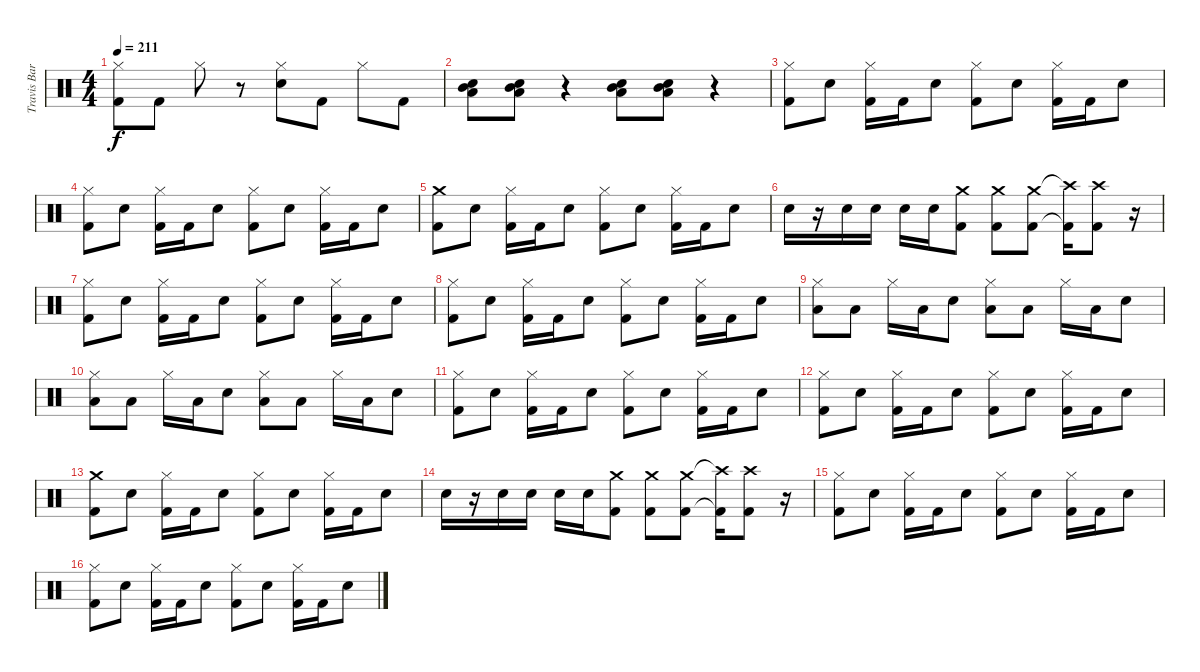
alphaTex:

\track ("Travis Barker (Drums)" "Travis Bar") {instrument percussion}
\staff {score}
\articulation defaults
\ts (4 4)
\tempo 211
\clef neutral
\ks c
("Kick (hit) 2" "Hi-Hat (closed)").8{dy f} "Kick (hit) 2".8 "Hi-Hat (closed)".8 r.8 ("Electric Snare (hit)" "Hi-Hat (closed)").8 "Kick (hit) 2".8 "Hi-Hat (closed)".8 "Kick (hit) 2".8 |
("Electric Snare (hit)" "Mid Tom (hit)" "Low Floor Tom (hit)").8 ("Electric Snare (hit)" "Mid Tom (hit)" "Low Floor Tom (hit)").8 r.4 ("Electric Snare (hit)" "Mid Tom (hit)" "Low Floor Tom (hit)").8 ("Electric Snare (hit)" "Mid Tom (hit)" "Low Floor Tom (hit)").8 r.4 |
("Kick (hit) 2" "Hi-Hat (closed)").8 "Electric Snare (hit)".8 ("Kick (hit) 2" "Hi-Hat (closed)").16 "Kick (hit) 2".16 "Electric Snare (hit)".8 ("Kick (hit) 2" "Hi-Hat (closed)").8 "Electric Snare (hit)".8 ("Kick (hit) 2" "Hi-Hat (closed)").16 "Kick (hit) 2".16 "Electric Snare (hit)".8 |
("Kick (hit) 2" "Hi-Hat (closed)").8 "Electric Snare (hit)".8 ("Kick (hit) 2" "Hi-Hat (closed)").16 "Kick (hit) 2".16 "Electric Snare (hit)".8 ("Kick (hit) 2" "Hi-Hat (closed)").8 "Electric Snare (hit)".8 ("Kick (hit) 2" "Hi-Hat (closed)").16 "Kick (hit) 2".16 "Electric Snare (hit)".8 |
("Kick (hit) 2" "Crash medium (hit)").8 "Electric Snare (hit)".8 ("Kick (hit) 2" "Hi-Hat (closed)").16 "Kick (hit) 2".16 "Electric Snare (hit)".8 ("Kick (hit) 2" "Hi-Hat (closed)").8 "Electric Snare (hit)".8 ("Kick (hit) 2" "Hi-Hat (closed)").16 "Kick (hit) 2".16 "Electric Snare (hit)".8 |
"Electric Snare (hit)".16 r.16 "Electric Snare (hit)".16 "Electric Snare (hit)".16 "Electric Snare (hit)".16 "Electric Snare (hit)".16 ("Crash medium (hit)" "Kick (hit) 2").8 ("Crash medium (hit)" "Kick (hit) 2").8 ("Crash medium (hit)" "Kick (hit) 2").8 ("Crash high (hit)"{t} "Kick (hit) 2"{t}).16 ("Crash high (hit)" "Kick (hit) 2").8 r.16 |
("Kick (hit) 2" "Hi-Hat (closed)").8 "Electric Snare (hit)".8 ("Kick (hit) 2" "Hi-Hat (closed)").16 "Kick (hit) 2".16 "Electric Snare (hit)".8 ("Kick (hit) 2" "Hi-Hat (closed)").8 "Electric Snare (hit)".8 ("Kick (hit) 2" "Hi-Hat (closed)").16 "Kick (hit) 2".16 "Electric Snare (hit)".8 |
("Kick (hit) 2" "Hi-Hat (closed)").8 "Electric Snare (hit)".8 ("Kick (hit) 2" "Hi-Hat (closed)").16 "Kick (hit) 2".16 "Electric Snare (hit)".8 ("Kick (hit) 2" "Hi-Hat (closed)").8 "Electric Snare (hit)".8 ("Kick (hit) 2" "Hi-Hat (closed)").16 "Kick (hit) 2".16 "Electric Snare (hit)".8 |
("Low Floor Tom (hit)" "Hi-Hat (closed)").8 "Low Floor Tom (hit)".8 "Hi-Hat (closed)".16 "Low Floor Tom (hit)".16 "Electric Snare (hit)".8 ("Low Floor Tom (hit)" "Hi-Hat (closed)").8 "Low Floor Tom (hit)".8 "Hi-Hat (closed)".16 "Low Floor Tom (hit)".16 "Electric Snare (hit)".8 |
("Low Floor Tom (hit)" "Hi-Hat (closed)").8 "Low Floor Tom (hit)".8 "Hi-Hat (closed)".16 "Low Floor Tom (hit)".16 "Electric Snare (hit)".8 ("Low Floor Tom (hit)" "Hi-Hat (closed)").8 "Low Floor Tom (hit)".8 "Hi-Hat (closed)".16 "Low Floor Tom (hit)".16 "Electric Snare (hit)".8 |
("Kick (hit) 2" "Hi-Hat (closed)").8 "Electric Snare (hit)".8 ("Kick (hit) 2" "Hi-Hat (closed)").16 "Kick (hit) 2".16 "Electric Snare (hit)".8 ("Kick (hit) 2" "Hi-Hat (closed)").8 "Electric Snare (hit)".8 ("Kick (hit) 2" "Hi-Hat (closed)").16 "Kick (hit) 2".16 "Electric Snare (hit)".8 |
("Kick (hit) 2" "Hi-Hat (closed)").8 "Electric Snare (hit)".8 ("Kick (hit) 2" "Hi-Hat (closed)").16 "Kick (hit) 2".16 "Electric Snare (hit)".8 ("Kick (hit) 2" "Hi-Hat (closed)").8 "Electric Snare (hit)".8 ("Kick (hit) 2" "Hi-Hat (closed)").16 "Kick (hit) 2".16 "Electric Snare (hit)".8 |
("Kick (hit) 2" "Crash medium (hit)").8 "Electric Snare (hit)".8 ("Kick (hit) 2" "Hi-Hat (closed)").16 "Kick (hit) 2".16 "Electric Snare (hit)".8 ("Kick (hit) 2" "Hi-Hat (closed)").8 "Electric Snare (hit)".8 ("Kick (hit) 2" "Hi-Hat (closed)").16 "Kick (hit) 2".16 "Electric Snare (hit)".8 |
"Electric Snare (hit)".16 r.16 "Electric Snare (hit)".16 "Electric Snare (hit)".16 "Electric Snare (hit)".16 "Electric Snare (hit)".16 ("Crash medium (hit)" "Kick (hit) 2").8 ("Crash medium (hit)" "Kick (hit) 2").8 ("Crash medium (hit)" "Kick (hit) 2").8 ("Crash high (hit)"{t} "Kick (hit) 2"{t}).16 ("Crash high (hit)" "Kick (hit) 2").8 r.16 |
("Kick (hit) 2" "Hi-Hat (closed)").8 "Electric Snare (hit)".8 ("Kick (hit) 2" "Hi-Hat (closed)").16 "Kick (hit) 2".16 "Electric Snare (hit)".8 ("Kick (hit) 2" "Hi-Hat (closed)").8 "Electric Snare (hit)".8 ("Kick (hit) 2" "Hi-Hat (closed)").16 "Kick (hit) 2".16 "Electric Snare (hit)".8 |
("Kick (hit) 2" "Hi-Hat (closed)").8 "Electric Snare (hit)".8 ("Kick (hit) 2" "Hi-Hat (closed)").16 "Kick (hit) 2".16 "Electric Snare (hit)".8 ("Kick (hit) 2" "Hi-Hat (closed)").8 "Electric Snare (hit)".8 ("Kick (hit) 2" "Hi-Hat (closed)").16 "Kick (hit) 2".16 "Electric Snare (hit)".8
